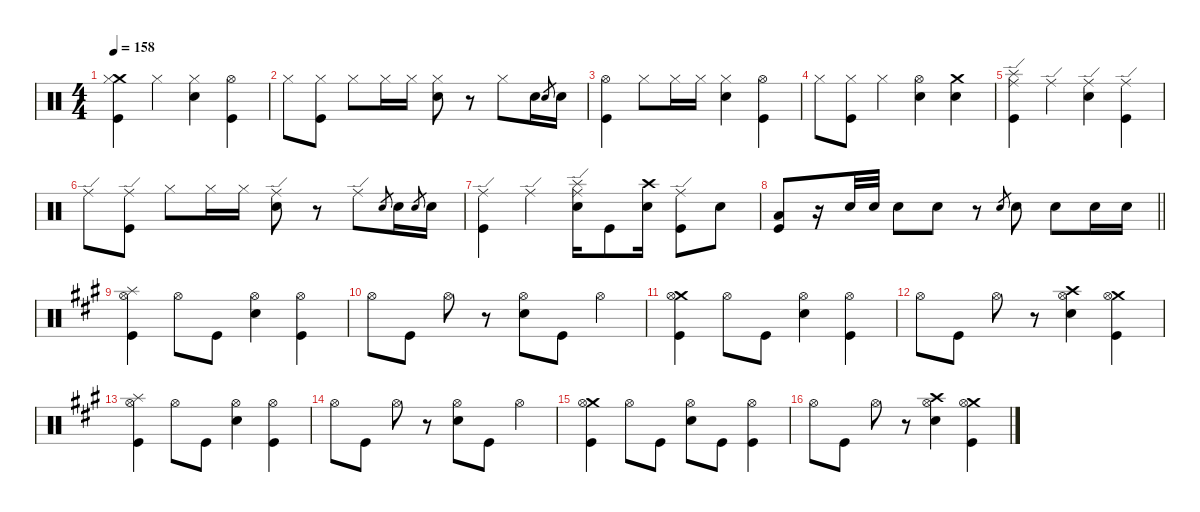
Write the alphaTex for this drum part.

\defaultSystemsLayout 4
\hideDynamics
\bracketExtendMode nobrackets
\singleTrackTrackNamePolicy hidden
\multiTrackTrackNamePolicy hidden
\firstSystemTrackNameMode fullname
\firstSystemTrackNameOrientation horizontal
\otherSystemsTrackNameOrientation horizontal
\track ("Drums" "drm.") {instrument percussion}
\staff {score}
\articulation defaults
\ts (4 4)
\tempo 158
\clef neutral
\ks aminor
("Crash medium (hit)" "Hi-Hat (closed)" "Kick (hit)").4{dy f beam Down} "Hi-Hat (closed)".4{beam Down} ("Hi-Hat (closed)" "Snare (hit) 2").4{beam Down} ("Hi-Hat (open)" "Kick (hit)").4{beam Down} |
"Hi-Hat (closed)".8{beam Down} ("Hi-Hat (closed)" "Kick (hit)").8{beam Down} "Hi-Hat (closed)".8{beam Down} "Hi-Hat (closed)".16{dy mp beam Down} "Hi-Hat (closed)".16{beam Down} ("Hi-Hat (closed)" "Snare (hit) 2").8{dy f beam Down} r.8{beam Down} "Hi-Hat (closed)".8{beam Down} "Snare (hit) 2".16{dy p beam Down} "Electric Snare (hit)".8{gr beam Up} "Snare (hit) 2".16{beam Down} |
("Hi-Hat (open)" "Kick (hit)").4{dy f beam Down} "Hi-Hat (closed)".8{beam Down} "Hi-Hat (closed)".16{dy mp beam Down} "Hi-Hat (closed)".16{beam Down} ("Hi-Hat (closed)" "Snare (hit) 2").4{dy f beam Down} ("Hi-Hat (open)" "Kick (hit)").4{beam Down} |
"Hi-Hat (closed)".8{beam Down} ("Hi-Hat (closed)" "Kick (hit)").8{beam Down} "Hi-Hat (closed)".4{beam Down} ("Hi-Hat (open)" "Snare (hit) 2").4{beam Down} ("Crash medium (hit)" "Snare (hit) 2").4{dy mp beam Down} |
("Splash (hit)" "Kick (hit)" "Ride (edge)").4{dy mf beam Down} "Ride (edge)".4{beam Down} ("Ride (edge)" "Snare (hit) 2").4{dy f beam Down} ("Ride (edge)" "Kick (hit)").4{beam Down} |
"Ride (edge)".8{beam Down} ("Ride (edge)" "Kick (hit)").8{beam Down} "Hi-Hat (closed)".8{dy mp beam Down} "Hi-Hat (closed)".16{beam Down} "Hi-Hat (closed)".16{beam Down} ("Ride (edge)" "Snare (hit) 2").8{dy f beam Down} r.8{beam Down} "Ride (edge)".8{beam Down} "Electric Snare (hit)".8{gr dy pp beam Up} "Snare (hit) 2".16{dy p beam Down} "Electric Snare (hit)".8{gr beam Up} "Snare (hit) 2".16{beam Down} |
("Ride (edge)" "Kick (hit)").4{dy f beam Down} "Ride (edge)".4{beam Down} ("Splash (hit)" "Ride (edge)" "Snare (hit) 2").16{dy mf beam Down} "Kick (hit)".8{dy f beam Down} ("Crash high (hit)" "Snare (hit) 2").16{beam Down} ("Ride (edge)" "Kick (hit)").8{beam Down} "Snare (hit) 2".8{beam Down} |
\barLineRight lightlight
("Low Tom (hit)" "Kick (hit)").8{beam Up} r.16{beam Up} "Snare (hit) 2".32{dy mf beam Up} "Snare (hit) 2".32{beam Up} "Snare (hit) 2".8{dy f beam Down} "Snare (hit) 2".8{beam Down} r.8{beam Down} "Electric Snare (hit)".8{gr dy mf beam Up} "Snare (hit) 2".8{dy f beam Down} "Snare (hit) 2".8{beam Down} "Snare (hit) 2".16{beam Down} "Snare (hit) 2".16{beam Down} |
\ks f#minor
("Splash (hit)"{acc forcenatural} "Hi-Hat (open)"{acc forcenatural} "Kick (hit)"{acc forcenatural}).4{beam Down} "Hi-Hat (open)"{acc forcenatural}.8{beam Down} "Kick (hit)"{acc forcenatural}.8{dy mp beam Down} ("Hi-Hat (open)"{acc forcenatural} "Snare (hit) 2"{acc forcenatural}).4{dy f beam Down} ("Hi-Hat (open)"{acc forcenatural} "Kick (hit)"{acc forcenatural}).4{beam Down} |
"Hi-Hat (open)"{acc forcenatural}.8{beam Down} "Kick (hit)"{acc forcenatural}.8{beam Down} "Hi-Hat (open)"{acc forcenatural}.8{beam Down} r.8{beam Down} ("Hi-Hat (open)"{acc forcenatural} "Snare (hit) 2"{acc forcenatural}).8{beam Down} "Kick (hit)"{acc forcenatural}.8{beam Down} "Hi-Hat (open)"{acc forcenatural}.4{beam Down} |
("Crash medium (hit)"{acc forcenatural} "Hi-Hat (open)"{acc forcenatural} "Kick (hit)"{acc forcenatural}).4{beam Down} "Hi-Hat (open)"{acc forcenatural}.8{beam Down} "Kick (hit)"{acc forcenatural}.8{dy mp beam Down} ("Hi-Hat (open)"{acc forcenatural} "Snare (hit) 2"{acc forcenatural}).4{dy f beam Down} ("Hi-Hat (open)"{acc forcenatural} "Kick (hit)"{acc forcenatural}).4{beam Down} |
"Hi-Hat (open)"{acc forcenatural}.8{beam Down} "Kick (hit)"{acc forcenatural}.8{beam Down} "Hi-Hat (open)"{acc forcenatural}.8{beam Down} r.8{beam Down} ("Crash high (hit)"{acc forcenatural} "Hi-Hat (open)"{acc forcenatural} "Snare (hit) 2"{acc forcenatural}).4{dy mf beam Down} ("Crash medium (hit)"{acc forcenatural} "Hi-Hat (open)"{acc forcenatural} "Kick (hit)"{acc forcenatural}).4{dy f beam Down} |
("Splash (hit)"{acc forcenatural} "Hi-Hat (open)"{acc forcenatural} "Kick (hit)"{acc forcenatural}).4{beam Down} "Hi-Hat (open)"{acc forcenatural}.8{beam Down} "Kick (hit)"{acc forcenatural}.8{dy mp beam Down} ("Hi-Hat (open)"{acc forcenatural} "Snare (hit) 2"{acc forcenatural}).4{dy f beam Down} ("Hi-Hat (open)"{acc forcenatural} "Kick (hit)"{acc forcenatural}).4{beam Down} |
"Hi-Hat (open)"{acc forcenatural}.8{beam Down} "Kick (hit)"{acc forcenatural}.8{beam Down} "Hi-Hat (open)"{acc forcenatural}.8{beam Down} r.8{beam Down} ("Hi-Hat (open)"{acc forcenatural} "Snare (hit) 2"{acc forcenatural}).8{beam Down} "Kick (hit)"{acc forcenatural}.8{beam Down} "Hi-Hat (open)"{acc forcenatural}.4{beam Down} |
("Crash medium (hit)"{acc forcenatural} "Hi-Hat (open)"{acc forcenatural} "Kick (hit)"{acc forcenatural}).4{beam Down} "Hi-Hat (open)"{acc forcenatural}.8{beam Down} "Kick (hit)"{acc forcenatural}.8{dy mp beam Down} ("Hi-Hat (open)"{acc forcenatural} "Snare (hit) 2"{acc forcenatural}).8{dy f beam Down} "Kick (hit)"{acc forcenatural}.8{dy mf beam Down} ("Hi-Hat (open)"{acc forcenatural} "Kick (hit)"{acc forcenatural}).4{dy f beam Down} |
"Hi-Hat (open)"{acc forcenatural}.8{beam Down} "Kick (hit)"{acc forcenatural}.8{beam Down} "Hi-Hat (open)"{acc forcenatural}.8{beam Down} r.8{beam Down} ("Crash high (hit)"{acc forcenatural} "Hi-Hat (open)"{acc forcenatural} "Snare (hit) 2"{acc forcenatural}).4{dy mf beam Down} ("Crash medium (hit)"{acc forcenatural} "Hi-Hat (open)"{acc forcenatural} "Kick (hit)"{acc forcenatural}).4{dy f beam Down}
